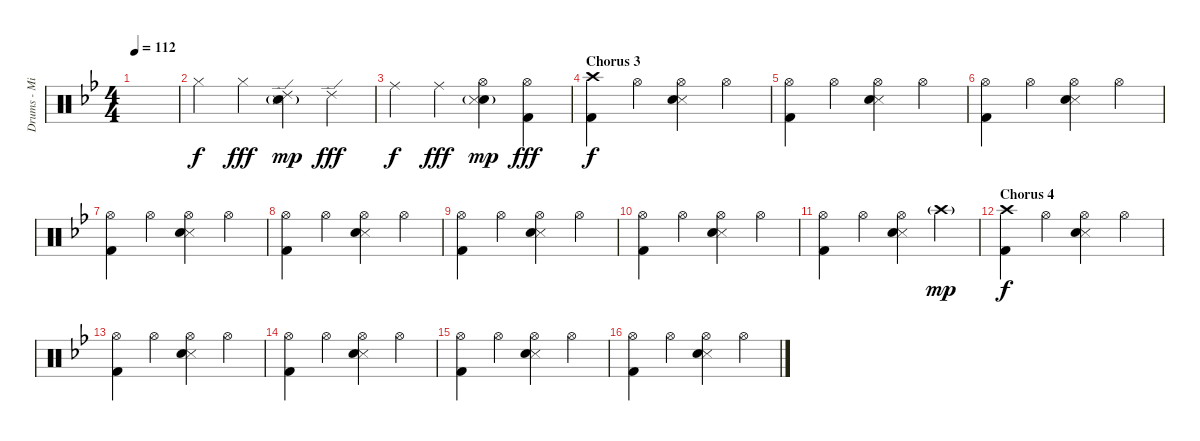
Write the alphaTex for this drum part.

\track ("Drums - Miko" "Drums - Mi") {instrument percussion}
\staff {score}
\articulation defaults
\ts (4 4)
\tempo 112
\clef neutral
\ks bb
|
"Hi-Hat (closed)".4 "Hi-Hat (closed)".4{dy fff} ("Ride (edge) 2" "Snare (hit) 2"{g} "Snare (side stick) 3"{g}).4{dy mp} "Ride (edge) 2".4{dy fff} |
"Ride (middle)".4{dy f} "Ride (middle)".4{dy fff} ("Hi-Hat (open)" "Snare (hit) 2"{g} "Snare (side stick) 3"{g}).4{dy mp} ("Hi-Hat (open)" "Kick (hit) 2").4{dy fff} |
\section ("" "Chorus 3")
("Crash high (hit)" "Kick (hit) 2").4{dy f} "Hi-Hat (open)".4 ("Hi-Hat (open)" "Snare (side stick) 3" "Electric Snare (hit)").4 "Hi-Hat (open)".4 |
("Hi-Hat (open)" "Kick (hit) 2").4 "Hi-Hat (open)".4 ("Hi-Hat (open)" "Snare (side stick) 3" "Electric Snare (hit)").4 "Hi-Hat (open)".4 |
("Hi-Hat (open)" "Kick (hit) 2").4 "Hi-Hat (open)".4 ("Hi-Hat (open)" "Snare (side stick) 3" "Electric Snare (hit)").4 "Hi-Hat (open)".4 |
("Hi-Hat (open)" "Kick (hit) 2").4 "Hi-Hat (open)".4 ("Hi-Hat (open)" "Snare (side stick) 3" "Electric Snare (hit)").4 "Hi-Hat (open)".4 |
("Hi-Hat (open)" "Kick (hit) 2").4 "Hi-Hat (open)".4 ("Hi-Hat (open)" "Snare (side stick) 3" "Electric Snare (hit)").4 "Hi-Hat (open)".4 |
("Hi-Hat (open)" "Kick (hit) 2").4 "Hi-Hat (open)".4 ("Hi-Hat (open)" "Snare (side stick) 3" "Electric Snare (hit)").4 "Hi-Hat (open)".4 |
("Hi-Hat (open)" "Kick (hit) 2").4 "Hi-Hat (open)".4 ("Hi-Hat (open)" "Snare (side stick) 3" "Electric Snare (hit)").4 "Hi-Hat (open)".4 |
("Hi-Hat (open)" "Kick (hit) 2").4 "Hi-Hat (open)".4 ("Hi-Hat (open)" "Snare (side stick) 3" "Electric Snare (hit)").4 "Crash high (hit)"{g}.4{dy mp} |
\section ("" "Chorus 4")
("Crash high (hit)" "Kick (hit) 2").4{dy f} "Hi-Hat (open)".4 ("Hi-Hat (open)" "Snare (side stick) 3" "Electric Snare (hit)").4 "Hi-Hat (open)".4 |
("Hi-Hat (open)" "Kick (hit) 2").4 "Hi-Hat (open)".4 ("Hi-Hat (open)" "Snare (side stick) 3" "Electric Snare (hit)").4 "Hi-Hat (open)".4 |
("Hi-Hat (open)" "Kick (hit) 2").4 "Hi-Hat (open)".4 ("Hi-Hat (open)" "Snare (side stick) 3" "Electric Snare (hit)").4 "Hi-Hat (open)".4 |
("Hi-Hat (open)" "Kick (hit) 2").4 "Hi-Hat (open)".4 ("Hi-Hat (open)" "Snare (side stick) 3" "Electric Snare (hit)").4 "Hi-Hat (open)".4 |
("Hi-Hat (open)" "Kick (hit) 2").4 "Hi-Hat (open)".4 ("Hi-Hat (open)" "Snare (side stick) 3" "Electric Snare (hit)").4 "Hi-Hat (open)".4
